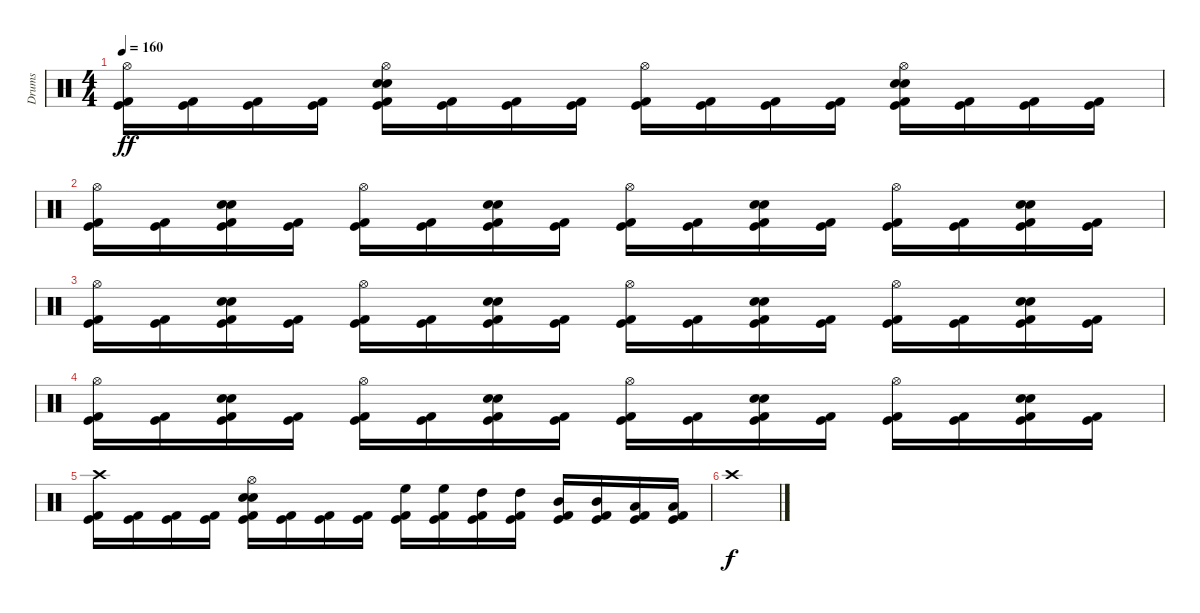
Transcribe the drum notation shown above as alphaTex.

\track ("Drums" "Drums") {instrument percussion}
\staff {score}
\articulation defaults
\ts (4 4)
\tempo 160
\clef neutral
\ks c
("Hi-Hat (open)" "Kick (hit) 2" "Kick (hit)").16{dy ff} ("Kick (hit) 2" "Kick (hit)").16 ("Kick (hit) 2" "Kick (hit)").16 ("Kick (hit) 2" "Kick (hit)").16 ("Hi-Hat (open)" "Snare (hit) 2" "Electric Snare (hit)" "Kick (hit) 2" "Kick (hit)").16 ("Kick (hit) 2" "Kick (hit)").16 ("Kick (hit) 2" "Kick (hit)").16 ("Kick (hit) 2" "Kick (hit)").16 ("Hi-Hat (open)" "Kick (hit) 2" "Kick (hit)").16 ("Kick (hit) 2" "Kick (hit)").16 ("Kick (hit) 2" "Kick (hit)").16 ("Kick (hit) 2" "Kick (hit)").16 ("Hi-Hat (open)" "Snare (hit) 2" "Electric Snare (hit)" "Kick (hit) 2" "Kick (hit)").16 ("Kick (hit) 2" "Kick (hit)").16 ("Kick (hit) 2" "Kick (hit)").16 ("Kick (hit) 2" "Kick (hit)").16 |
("Hi-Hat (open)" "Kick (hit) 2" "Kick (hit)").16 ("Kick (hit) 2" "Kick (hit)").16 ("Electric Snare (hit)" "Snare (hit) 2" "Kick (hit) 2" "Kick (hit)").16 ("Kick (hit) 2" "Kick (hit)").16 ("Hi-Hat (open)" "Kick (hit) 2" "Kick (hit)").16 ("Kick (hit) 2" "Kick (hit)").16 ("Electric Snare (hit)" "Snare (hit) 2" "Kick (hit) 2" "Kick (hit)").16 ("Kick (hit) 2" "Kick (hit)").16 ("Hi-Hat (open)" "Kick (hit) 2" "Kick (hit)").16 ("Kick (hit) 2" "Kick (hit)").16 ("Electric Snare (hit)" "Snare (hit) 2" "Kick (hit) 2" "Kick (hit)").16 ("Kick (hit) 2" "Kick (hit)").16 ("Hi-Hat (open)" "Kick (hit) 2" "Kick (hit)").16 ("Kick (hit) 2" "Kick (hit)").16 ("Electric Snare (hit)" "Snare (hit) 2" "Kick (hit) 2" "Kick (hit)").16 ("Kick (hit) 2" "Kick (hit)").16 |
("Hi-Hat (open)" "Kick (hit) 2" "Kick (hit)").16 ("Kick (hit) 2" "Kick (hit)").16 ("Electric Snare (hit)" "Snare (hit) 2" "Kick (hit) 2" "Kick (hit)").16 ("Kick (hit) 2" "Kick (hit)").16 ("Hi-Hat (open)" "Kick (hit) 2" "Kick (hit)").16 ("Kick (hit) 2" "Kick (hit)").16 ("Electric Snare (hit)" "Snare (hit) 2" "Kick (hit) 2" "Kick (hit)").16 ("Kick (hit) 2" "Kick (hit)").16 ("Hi-Hat (open)" "Kick (hit) 2" "Kick (hit)").16 ("Kick (hit) 2" "Kick (hit)").16 ("Electric Snare (hit)" "Snare (hit) 2" "Kick (hit) 2" "Kick (hit)").16 ("Kick (hit) 2" "Kick (hit)").16 ("Hi-Hat (open)" "Kick (hit) 2" "Kick (hit)").16 ("Kick (hit) 2" "Kick (hit)").16 ("Electric Snare (hit)" "Snare (hit) 2" "Kick (hit) 2" "Kick (hit)").16 ("Kick (hit) 2" "Kick (hit)").16 |
("Hi-Hat (open)" "Kick (hit) 2" "Kick (hit)").16 ("Kick (hit) 2" "Kick (hit)").16 ("Electric Snare (hit)" "Snare (hit) 2" "Kick (hit) 2" "Kick (hit)").16 ("Kick (hit) 2" "Kick (hit)").16 ("Hi-Hat (open)" "Kick (hit) 2" "Kick (hit)").16 ("Kick (hit) 2" "Kick (hit)").16 ("Electric Snare (hit)" "Snare (hit) 2" "Kick (hit) 2" "Kick (hit)").16 ("Kick (hit) 2" "Kick (hit)").16 ("Hi-Hat (open)" "Kick (hit) 2" "Kick (hit)").16 ("Kick (hit) 2" "Kick (hit)").16 ("Electric Snare (hit)" "Snare (hit) 2" "Kick (hit) 2" "Kick (hit)").16 ("Kick (hit) 2" "Kick (hit)").16 ("Hi-Hat (open)" "Kick (hit) 2" "Kick (hit)").16 ("Kick (hit) 2" "Kick (hit)").16 ("Electric Snare (hit)" "Snare (hit) 2" "Kick (hit) 2" "Kick (hit)").16 ("Kick (hit) 2" "Kick (hit)").16 |
("Crash high (hit)" "Kick (hit) 2" "Kick (hit)").16 ("Kick (hit) 2" "Kick (hit)").16 ("Kick (hit) 2" "Kick (hit)").16 ("Kick (hit) 2" "Kick (hit)").16 ("Hi-Hat (open)" "Snare (hit) 2" "Electric Snare (hit)" "Kick (hit) 2" "Kick (hit)").16 ("Kick (hit) 2" "Kick (hit)").16 ("Kick (hit) 2" "Kick (hit)").16 ("Kick (hit) 2" "Kick (hit)").16 ("High Floor Tom (hit)" "Kick (hit) 2" "Kick (hit)").16 ("High Floor Tom (hit)" "Kick (hit) 2" "Kick (hit)").16 ("High Tom (hit)" "Kick (hit) 2" "Kick (hit)").16 ("High Tom (hit)" "Kick (hit) 2" "Kick (hit)").16 ("Mid Tom (hit)" "Kick (hit) 2" "Kick (hit)").16 ("Mid Tom (hit)" "Kick (hit) 2" "Kick (hit)").16 ("Low Tom (hit)" "Kick (hit) 2" "Kick (hit)").16 ("Low Tom (hit)" "Kick (hit) 2" "Kick (hit)").16 |
"Crash high (hit)".1{dy f}
